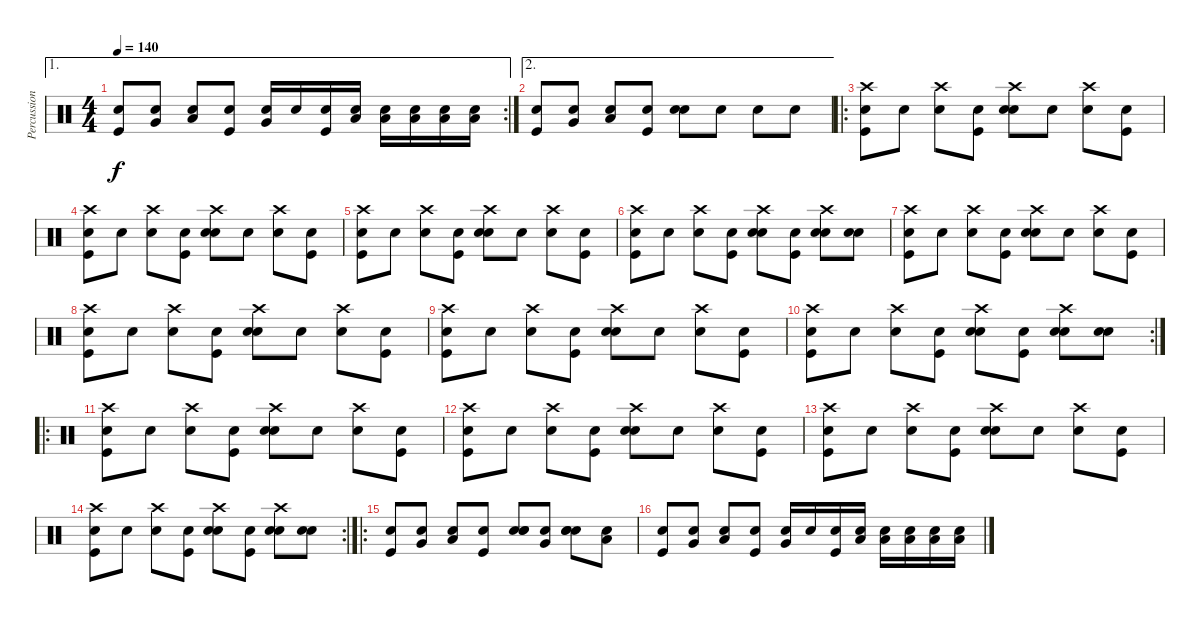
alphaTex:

\track ("Percussion" "Percussion") {instrument percussion}
\staff {score}
\articulation defaults
\ae 1
\rc 2
\ts (4 4)
\tempo 140
\clef neutral
\ks c
("Snare (hit)" "Kick (hit)").8{dy f} ("Snare (hit)" "Very Low Tom (hit)").8 ("Snare (hit)" "Low Floor Tom (hit)").8 ("Snare (hit)" "Kick (hit)").8 ("Snare (hit)" "Very Low Tom (hit)").16 "Snare (hit)".16 ("Snare (hit)" "Kick (hit)").16 ("Snare (hit)" "Low Floor Tom (hit)").16 ("Snare (hit)" "Low Floor Tom (hit)").16 ("Snare (hit)" "Low Floor Tom (hit)").16 ("Snare (hit)" "Low Floor Tom (hit)").16 ("Snare (hit)" "Low Floor Tom (hit)").16 |
\ae 2
("Snare (hit)" "Kick (hit)").8 ("Snare (hit)" "Very Low Tom (hit)").8 ("Snare (hit)" "Low Floor Tom (hit)").8 ("Snare (hit)" "Kick (hit)").8 ("Snare (hit)" "Snare (hit) 2").8 "Snare (hit)".8 "Snare (hit)".8 "Snare (hit)".8 |
\ro
("Snare (hit)" "Crash high (hit)" "Kick (hit)").8 "Snare (hit)".8 ("Snare (hit)" "Crash high (hit)").8 ("Snare (hit)" "Kick (hit)").8 ("Snare (hit)" "Crash high (hit)" "Snare (hit) 2").8 "Snare (hit)".8 ("Snare (hit)" "Crash high (hit)").8 ("Snare (hit)" "Kick (hit)").8 |
("Snare (hit)" "Crash high (hit)" "Kick (hit)").8 "Snare (hit)".8 ("Snare (hit)" "Crash high (hit)").8 ("Snare (hit)" "Kick (hit)").8 ("Snare (hit)" "Crash high (hit)" "Snare (hit) 2").8 "Snare (hit)".8 ("Snare (hit)" "Crash high (hit)").8 ("Snare (hit)" "Kick (hit)").8 |
("Snare (hit)" "Crash high (hit)" "Kick (hit)").8 "Snare (hit)".8 ("Snare (hit)" "Crash high (hit)").8 ("Snare (hit)" "Kick (hit)").8 ("Snare (hit)" "Crash high (hit)" "Snare (hit) 2").8 "Snare (hit)".8 ("Snare (hit)" "Crash high (hit)").8 ("Snare (hit)" "Kick (hit)").8 |
("Snare (hit)" "Crash high (hit)" "Kick (hit)").8 "Snare (hit)".8 ("Snare (hit)" "Crash high (hit)").8 ("Snare (hit)" "Kick (hit)").8 ("Snare (hit)" "Crash high (hit)" "Snare (hit) 2").8 ("Snare (hit)" "Kick (hit)").8 ("Snare (hit)" "Crash high (hit)" "Snare (hit) 2").8 ("Snare (hit)" "Snare (hit) 2").8 |
("Snare (hit)" "Crash high (hit)" "Kick (hit)").8 "Snare (hit)".8 ("Snare (hit)" "Crash high (hit)").8 ("Snare (hit)" "Kick (hit)").8 ("Snare (hit)" "Crash high (hit)" "Snare (hit) 2").8 "Snare (hit)".8 ("Snare (hit)" "Crash high (hit)").8 ("Snare (hit)" "Kick (hit)").8 |
("Snare (hit)" "Crash high (hit)" "Kick (hit)").8 "Snare (hit)".8 ("Snare (hit)" "Crash high (hit)").8 ("Snare (hit)" "Kick (hit)").8 ("Snare (hit)" "Crash high (hit)" "Snare (hit) 2").8 "Snare (hit)".8 ("Snare (hit)" "Crash high (hit)").8 ("Snare (hit)" "Kick (hit)").8 |
("Snare (hit)" "Crash high (hit)" "Kick (hit)").8 "Snare (hit)".8 ("Snare (hit)" "Crash high (hit)").8 ("Snare (hit)" "Kick (hit)").8 ("Snare (hit)" "Crash high (hit)" "Snare (hit) 2").8 "Snare (hit)".8 ("Snare (hit)" "Crash high (hit)").8 ("Snare (hit)" "Kick (hit)").8 |
\rc 2
("Snare (hit)" "Crash high (hit)" "Kick (hit)").8 "Snare (hit)".8 ("Snare (hit)" "Crash high (hit)").8 ("Snare (hit)" "Kick (hit)").8 ("Snare (hit)" "Crash high (hit)" "Snare (hit) 2").8 ("Snare (hit)" "Kick (hit)").8 ("Snare (hit)" "Crash high (hit)" "Snare (hit) 2").8 ("Snare (hit)" "Snare (hit) 2").8 |
\ro
("Snare (hit)" "Crash high (hit)" "Kick (hit)").8 "Snare (hit)".8 ("Snare (hit)" "Crash high (hit)").8 ("Snare (hit)" "Kick (hit)").8 ("Snare (hit)" "Crash high (hit)" "Snare (hit) 2").8 "Snare (hit)".8 ("Snare (hit)" "Crash high (hit)").8 ("Snare (hit)" "Kick (hit)").8 |
("Snare (hit)" "Crash high (hit)" "Kick (hit)").8 "Snare (hit)".8 ("Snare (hit)" "Crash high (hit)").8 ("Snare (hit)" "Kick (hit)").8 ("Snare (hit)" "Crash high (hit)" "Snare (hit) 2").8 "Snare (hit)".8 ("Snare (hit)" "Crash high (hit)").8 ("Snare (hit)" "Kick (hit)").8 |
("Snare (hit)" "Crash high (hit)" "Kick (hit)").8 "Snare (hit)".8 ("Snare (hit)" "Crash high (hit)").8 ("Snare (hit)" "Kick (hit)").8 ("Snare (hit)" "Crash high (hit)" "Snare (hit) 2").8 "Snare (hit)".8 ("Snare (hit)" "Crash high (hit)").8 ("Snare (hit)" "Kick (hit)").8 |
\rc 2
("Snare (hit)" "Crash high (hit)" "Kick (hit)").8 "Snare (hit)".8 ("Snare (hit)" "Crash high (hit)").8 ("Snare (hit)" "Kick (hit)").8 ("Snare (hit)" "Crash high (hit)" "Snare (hit) 2").8 ("Snare (hit)" "Kick (hit)").8 ("Snare (hit)" "Crash high (hit)" "Snare (hit) 2").8 ("Snare (hit)" "Snare (hit) 2").8 |
\ro
("Snare (hit)" "Kick (hit)").8 ("Snare (hit)" "Very Low Tom (hit)").8 ("Snare (hit)" "Low Floor Tom (hit)").8 ("Snare (hit)" "Kick (hit)").8 ("Snare (hit)" "Snare (hit) 2" "Snare (hit) 2").8 ("Snare (hit)" "Very Low Tom (hit)").8 ("Snare (hit)" "Snare (hit) 2" "Snare (hit) 2").8 ("Snare (hit)" "Low Floor Tom (hit)").8 |
("Snare (hit)" "Kick (hit)").8 ("Snare (hit)" "Very Low Tom (hit)").8 ("Snare (hit)" "Low Floor Tom (hit)").8 ("Snare (hit)" "Kick (hit)").8 ("Snare (hit)" "Very Low Tom (hit)").16 "Snare (hit)".16 ("Snare (hit)" "Kick (hit)").16 ("Snare (hit)" "Low Floor Tom (hit)").16 ("Snare (hit)" "Low Floor Tom (hit)").16 ("Snare (hit)" "Low Floor Tom (hit)").16 ("Snare (hit)" "Low Floor Tom (hit)").16 ("Snare (hit)" "Low Floor Tom (hit)").16
